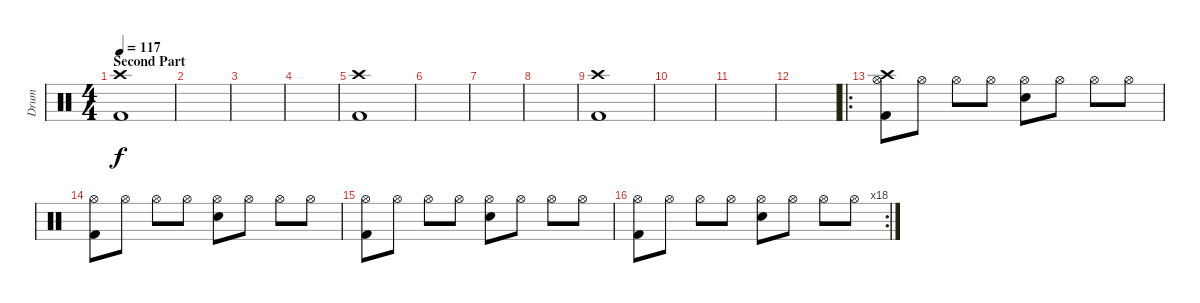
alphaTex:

\track ("Drum" "Drum") {instrument percussion}
\staff {score}
\articulation defaults
\ts (4 4)
\section ("" "Second Part")
\tempo 117
\clef neutral
\ks c
("Crash high (hit)" "Kick (hit) 2").1{dy f} |
|
|
|
("Crash high (hit)" "Kick (hit) 2").1 |
|
|
|
("Crash high (hit)" "Kick (hit) 2").1 |
|
|
|
\ro
("Hi-Hat (open)" "Crash high (hit)" "Kick (hit) 2").8 "Hi-Hat (open)".8 "Hi-Hat (open)".8 "Hi-Hat (open)".8 ("Hi-Hat (open)" "Snare (hit) 2").8 "Hi-Hat (open)".8 "Hi-Hat (open)".8 "Hi-Hat (open)".8 |
("Hi-Hat (open)" "Kick (hit) 2").8 "Hi-Hat (open)".8 "Hi-Hat (open)".8 "Hi-Hat (open)".8 ("Hi-Hat (open)" "Snare (hit) 2").8 "Hi-Hat (open)".8 "Hi-Hat (open)".8 "Hi-Hat (open)".8 |
("Hi-Hat (open)" "Kick (hit) 2").8 "Hi-Hat (open)".8 "Hi-Hat (open)".8 "Hi-Hat (open)".8 ("Hi-Hat (open)" "Snare (hit) 2").8 "Hi-Hat (open)".8 "Hi-Hat (open)".8 "Hi-Hat (open)".8 |
\rc 18
("Hi-Hat (open)" "Kick (hit) 2").8 "Hi-Hat (open)".8 "Hi-Hat (open)".8 "Hi-Hat (open)".8 ("Hi-Hat (open)" "Snare (hit) 2").8 "Hi-Hat (open)".8 "Hi-Hat (open)".8 "Hi-Hat (open)".8
